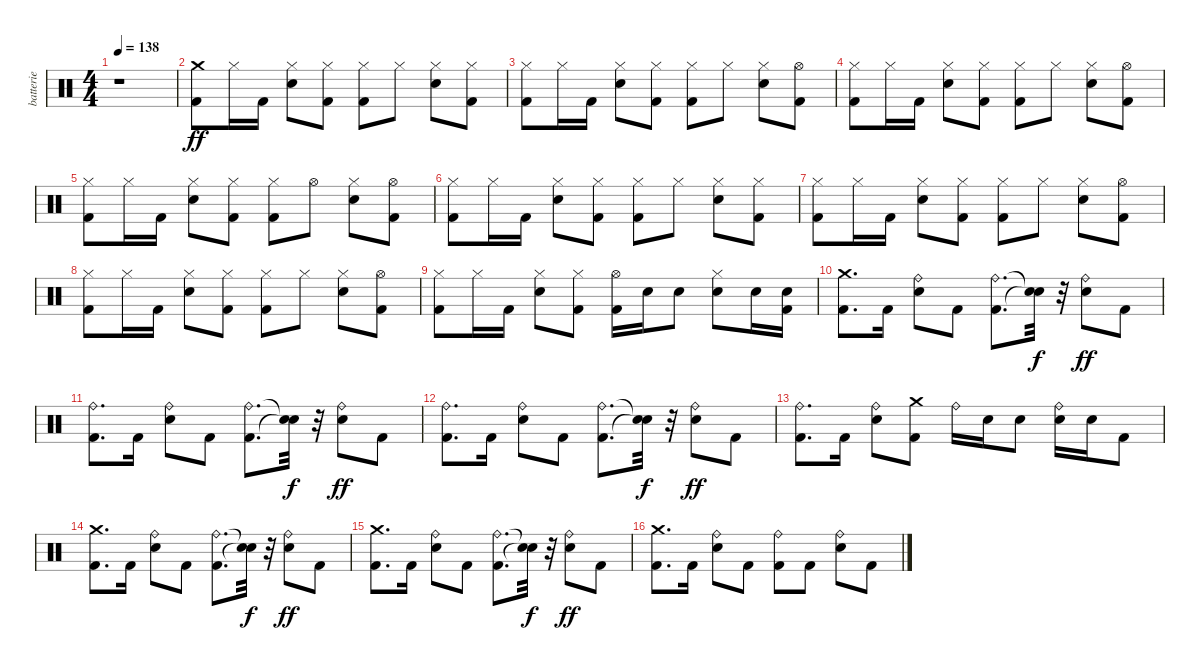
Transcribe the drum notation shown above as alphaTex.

\track ("batterie" "batterie") {instrument percussion}
\staff {score}
\articulation defaults
\ts (4 4)
\tempo 138
\clef neutral
\ks c
r.1{dy ff} |
("Kick (hit) 2" "Crash medium (hit)").8 "Hi-Hat (closed)".16 "Kick (hit) 2".16 ("Electric Snare (hit)" "Hi-Hat (closed)").8 ("Kick (hit) 2" "Hi-Hat (closed)").8 ("Kick (hit) 2" "Hi-Hat (closed)").8 "Hi-Hat (closed)".8 ("Electric Snare (hit)" "Hi-Hat (closed)").8 ("Kick (hit) 2" "Hi-Hat (closed)").8 |
("Kick (hit) 2" "Hi-Hat (closed)").8 "Hi-Hat (closed)".16 "Kick (hit) 2".16 ("Electric Snare (hit)" "Hi-Hat (closed)").8 ("Kick (hit) 2" "Hi-Hat (closed)").8 ("Kick (hit) 2" "Hi-Hat (closed)").8 "Hi-Hat (closed)".8 ("Electric Snare (hit)" "Hi-Hat (closed)").8 ("Kick (hit) 2" "Hi-Hat (open)").8 |
("Kick (hit) 2" "Hi-Hat (closed)").8 "Hi-Hat (closed)".16 "Kick (hit) 2".16 ("Electric Snare (hit)" "Hi-Hat (closed)").8 ("Kick (hit) 2" "Hi-Hat (closed)").8 ("Kick (hit) 2" "Hi-Hat (closed)").8 "Hi-Hat (closed)".8 ("Electric Snare (hit)" "Hi-Hat (closed)").8 ("Kick (hit) 2" "Hi-Hat (open)").8 |
("Kick (hit) 2" "Hi-Hat (closed)").8 "Hi-Hat (closed)".16 "Kick (hit) 2".16 ("Electric Snare (hit)" "Hi-Hat (closed)").8 ("Kick (hit) 2" "Hi-Hat (closed)").8 ("Kick (hit) 2" "Hi-Hat (closed)").8 "Hi-Hat (open)".8 ("Electric Snare (hit)" "Hi-Hat (closed)").8 ("Kick (hit) 2" "Hi-Hat (open)").8 |
("Kick (hit) 2" "Hi-Hat (closed)").8 "Hi-Hat (closed)".16 "Kick (hit) 2".16 ("Electric Snare (hit)" "Hi-Hat (closed)").8 ("Kick (hit) 2" "Hi-Hat (closed)").8 ("Kick (hit) 2" "Hi-Hat (closed)").8 "Hi-Hat (closed)".8 ("Electric Snare (hit)" "Hi-Hat (closed)").8 ("Kick (hit) 2" "Hi-Hat (closed)").8 |
("Kick (hit) 2" "Hi-Hat (closed)").8 "Hi-Hat (closed)".16 "Kick (hit) 2".16 ("Electric Snare (hit)" "Hi-Hat (closed)").8 ("Kick (hit) 2" "Hi-Hat (closed)").8 ("Kick (hit) 2" "Hi-Hat (closed)").8 "Hi-Hat (closed)".8 ("Electric Snare (hit)" "Hi-Hat (closed)").8 ("Kick (hit) 2" "Hi-Hat (open)").8 |
("Kick (hit) 2" "Hi-Hat (closed)").8 "Hi-Hat (closed)".16 "Kick (hit) 2".16 ("Electric Snare (hit)" "Hi-Hat (closed)").8 ("Kick (hit) 2" "Hi-Hat (closed)").8 ("Kick (hit) 2" "Hi-Hat (closed)").8 "Hi-Hat (closed)".8 ("Electric Snare (hit)" "Hi-Hat (closed)").8 ("Kick (hit) 2" "Hi-Hat (open)").8 |
("Kick (hit) 2" "Hi-Hat (closed)").8 "Hi-Hat (closed)".16 "Kick (hit) 2".16 ("Electric Snare (hit)" "Hi-Hat (closed)").8 ("Kick (hit) 2" "Hi-Hat (closed)").8 ("Kick (hit) 2" "Hi-Hat (open)").16 "Electric Snare (hit)".16 "Electric Snare (hit)".8 ("Electric Snare (hit)" "Hi-Hat (closed)").8 "Electric Snare (hit)".16 ("Kick (hit) 2" "Electric Snare (hit)").16 |
("Kick (hit) 2" "Crash medium (hit)").8{d} "Kick (hit) 2".16 ("Electric Snare (hit)" "Ride (bell)").8 "Kick (hit) 2".8 ("Kick (hit) 2" "Ride (bell)").8{d} ("Snare (hit)"{t} "Snare (hit)"{t}).32{dy f} r.32 ("Electric Snare (hit)" "Ride (bell)").8{dy ff} "Kick (hit) 2".8 |
("Kick (hit) 2" "Ride (bell)").8{d} "Kick (hit) 2".16 ("Electric Snare (hit)" "Ride (bell)").8 "Kick (hit) 2".8 ("Kick (hit) 2" "Ride (bell)").8{d} ("Snare (hit)"{t} "Snare (hit)"{t}).32{dy f} r.32 ("Electric Snare (hit)" "Ride (bell)").8{dy ff} "Kick (hit) 2".8 |
("Kick (hit) 2" "Ride (bell)").8{d} "Kick (hit) 2".16 ("Electric Snare (hit)" "Ride (bell)").8 "Kick (hit) 2".8 ("Kick (hit) 2" "Ride (bell)").8{d} ("Snare (hit)"{t} "Snare (hit)"{t}).32{dy f} r.32 ("Electric Snare (hit)" "Ride (bell)").8{dy ff} "Kick (hit) 2".8 |
("Kick (hit) 2" "Ride (bell)").8{d} "Kick (hit) 2".16 ("Electric Snare (hit)" "Ride (bell)").8 ("Kick (hit) 2" "Crash medium (hit)").8 "Ride (bell)".16 "Electric Snare (hit)".16 "Electric Snare (hit)".8 ("Electric Snare (hit)" "Ride (bell)").16 "Electric Snare (hit)".16 "Kick (hit) 2".8 |
("Kick (hit) 2" "Crash medium (hit)").8{d} "Kick (hit) 2".16 ("Electric Snare (hit)" "Ride (bell)").8 "Kick (hit) 2".8 ("Kick (hit) 2" "Ride (bell)").8{d} ("Snare (hit)"{t} "Snare (hit)"{t}).32{dy f} r.32 ("Electric Snare (hit)" "Ride (bell)").8{dy ff} "Kick (hit) 2".8 |
("Kick (hit) 2" "Crash medium (hit)").8{d} "Kick (hit) 2".16 ("Electric Snare (hit)" "Ride (bell)").8 "Kick (hit) 2".8 ("Kick (hit) 2" "Ride (bell)").8{d} ("Snare (hit)"{t} "Snare (hit)"{t}).32{dy f} r.32 ("Electric Snare (hit)" "Ride (bell)").8{dy ff} "Kick (hit) 2".8 |
("Kick (hit) 2" "Crash medium (hit)").8{d} "Kick (hit) 2".16 ("Electric Snare (hit)" "Ride (bell)").8 "Kick (hit) 2".8 ("Kick (hit) 2" "Ride (bell)").8 "Kick (hit) 2".8 ("Electric Snare (hit)" "Ride (bell)").8 "Kick (hit) 2".8
